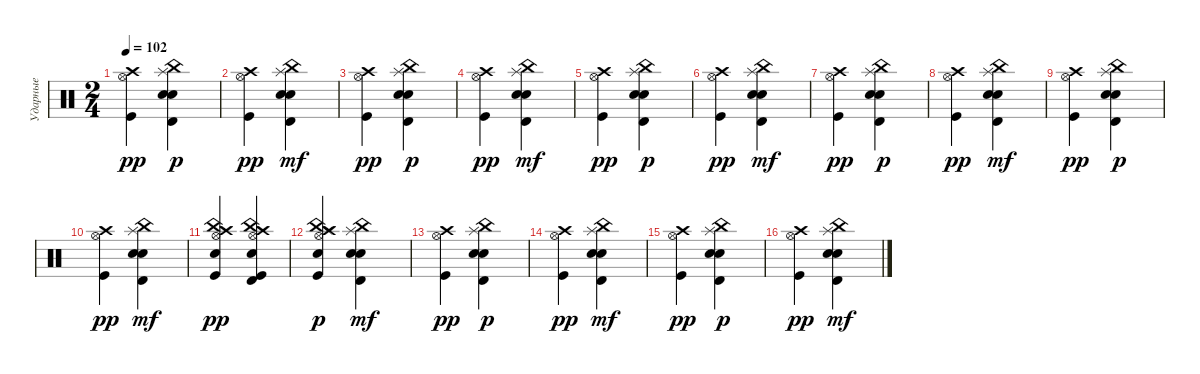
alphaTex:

\track ("Ударные" "Ударные") {instrument percussion}
\staff {score}
\articulation defaults
\ts (2 4)
\tempo 102
\clef neutral
\ks c
("Kick (hit)" "Hi-Hat (open)" "Crash high (hit)").4{dy pp} ("Splash (hit)" "China (hit)" "Snare (hit) 2" "Electric Snare (hit)" "Timbale high (hit)").4{dy p} |
("Kick (hit)" "Hi-Hat (open)" "Crash high (hit)").4{dy pp} ("Splash (hit)" "China (hit)" "Snare (hit) 2" "Timbale high (hit)" "Electric Snare (hit)").4{dy mf} |
("Kick (hit)" "Hi-Hat (open)" "Crash high (hit)").4{dy pp} ("Splash (hit)" "China (hit)" "Snare (hit) 2" "Electric Snare (hit)" "Timbale high (hit)").4{dy p} |
("Kick (hit)" "Hi-Hat (open)" "Crash high (hit)").4{dy pp} ("Splash (hit)" "China (hit)" "Snare (hit) 2" "Timbale high (hit)" "Electric Snare (hit)").4{dy mf} |
("Kick (hit)" "Hi-Hat (open)" "Crash high (hit)").4{dy pp} ("Splash (hit)" "China (hit)" "Snare (hit) 2" "Electric Snare (hit)" "Timbale high (hit)").4{dy p} |
("Kick (hit)" "Hi-Hat (open)" "Crash high (hit)").4{dy pp} ("Splash (hit)" "China (hit)" "Snare (hit) 2" "Timbale high (hit)" "Electric Snare (hit)").4{dy mf} |
("Kick (hit)" "Hi-Hat (open)" "Crash high (hit)").4{dy pp} ("Splash (hit)" "China (hit)" "Snare (hit) 2" "Electric Snare (hit)" "Timbale high (hit)").4{dy p} |
("Kick (hit)" "Hi-Hat (open)" "Crash high (hit)").4{dy pp} ("Splash (hit)" "China (hit)" "Snare (hit) 2" "Timbale high (hit)" "Electric Snare (hit)").4{dy mf} |
("Kick (hit)" "Hi-Hat (open)" "Crash high (hit)").4{dy pp} ("Splash (hit)" "China (hit)" "Snare (hit) 2" "Electric Snare (hit)" "Timbale high (hit)").4{dy p} |
("Kick (hit)" "Hi-Hat (open)" "Crash high (hit)").4{dy pp} ("Splash (hit)" "China (hit)" "Snare (hit) 2" "Timbale high (hit)" "Electric Snare (hit)").4{dy mf} |
("Hi-Hat (open)" "Snare (hit) 2" "China (hit)" "Kick (hit)" "Crash high (hit)").4{dy pp} ("Timbale high (hit)" "Snare (hit) 2" "Hi-Hat (open)" "Kick (hit)" "China (hit)" "Crash high (hit)").4 |
("Snare (hit) 2" "Hi-Hat (open)" "China (hit)" "Splash (hit)" "Crash high (hit)" "Kick (hit)").4{dy p} ("Splash (hit)" "China (hit)" "Snare (hit) 2" "Timbale high (hit)" "Electric Snare (hit)").4{dy mf} |
("Kick (hit)" "Hi-Hat (open)" "Crash high (hit)").4{dy pp} ("Splash (hit)" "China (hit)" "Snare (hit) 2" "Electric Snare (hit)" "Timbale high (hit)").4{dy p} |
("Kick (hit)" "Hi-Hat (open)" "Crash high (hit)").4{dy pp} ("Splash (hit)" "China (hit)" "Snare (hit) 2" "Timbale high (hit)" "Electric Snare (hit)").4{dy mf} |
("Kick (hit)" "Hi-Hat (open)" "Crash high (hit)").4{dy pp} ("Splash (hit)" "China (hit)" "Snare (hit) 2" "Electric Snare (hit)" "Timbale high (hit)").4{dy p} |
("Kick (hit)" "Hi-Hat (open)" "Crash high (hit)").4{dy pp} ("Splash (hit)" "China (hit)" "Snare (hit) 2" "Timbale high (hit)" "Electric Snare (hit)").4{dy mf}
